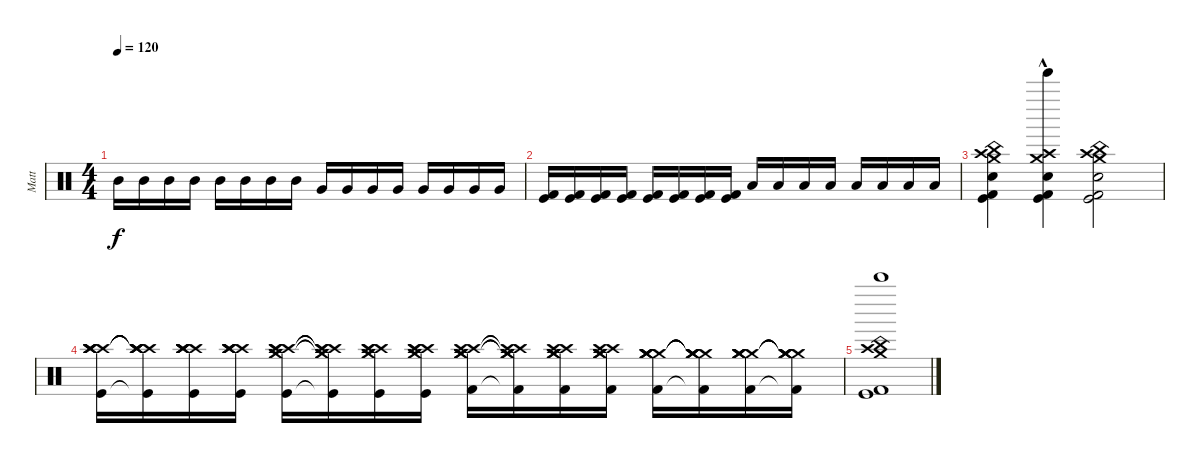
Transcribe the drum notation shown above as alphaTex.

\track ("Matt" "Matt") {instrument percussion}
\staff {score}
\articulation defaults
\ts (4 4)
\tempo 120
\clef neutral
\ks c "Mid Tom (hit)".16{dy f} "Mid Tom (hit)".16 "Mid Tom (hit)".16 "Mid Tom (hit)".16 "Mid Tom (hit)".16 "Mid Tom (hit)".16 "Mid Tom (hit)".16 "Mid Tom (hit)".16 "Very Low Tom (hit)".16 "Very Low Tom (hit)".16 "Very Low Tom (hit)".16 "Very Low Tom (hit)".16 "Very Low Tom (hit)".16 "Very Low Tom (hit)".16 "Very Low Tom (hit)".16 "Very Low Tom (hit)".16
|
("Kick (hit) 2" "Kick (hit)").16 ("Kick (hit) 2" "Kick (hit)").16 ("Kick (hit) 2" "Kick (hit)").16 ("Kick (hit) 2" "Kick (hit)").16 ("Kick (hit) 2" "Kick (hit)").16 ("Kick (hit) 2" "Kick (hit)").16 ("Kick (hit) 2" "Kick (hit)").16 ("Kick (hit) 2" "Kick (hit)").16 "Low Floor Tom (hit)".16 "Low Floor Tom (hit)".16 "Low Floor Tom (hit)".16 "Low Floor Tom (hit)".16 "Low Floor Tom (hit)".16 "Low Floor Tom (hit)".16 "Low Floor Tom (hit)".16 "Low Floor Tom (hit)".16 |
("China (hit)" "Crash medium (hit)" "Electric Snare (hit)" "Crash high (hit)" "Kick (hit)" "Kick (hit) 2").4 ("Tinkle Bell (hit)"{hac} "Crash medium (hit)" "Electric Snare (hit)" "Crash high (hit)" "Kick (hit)" "Kick (hit) 2").4 ("China (hit)" "Crash medium (hit)" "Electric Snare (hit)" "Crash high (hit)" "Kick (hit)" "Kick (hit) 2").2 |
("Crash high (hit)" "Crash high (hit)" "Crash high (hit)" "Crash high (hit)" "Crash high (hit)" "Kick (hit)").16 ("Crash high (hit)"{t} "Crash high (hit)"{t} "Crash high (hit)"{t} "Crash high (hit)"{t} "Crash high (hit)"{t} "Kick (hit)"{t}).16 ("Crash high (hit)" "Crash high (hit)" "Crash high (hit)" "Crash high (hit)" "Crash high (hit)" "Kick (hit)").16 ("Crash high (hit)" "Crash high (hit)" "Crash high (hit)" "Crash high (hit)" "Crash high (hit)" "Kick (hit)").16 ("Crash high (hit)" "Crash high (hit)" "Crash high (hit)" "Crash medium (hit)" "Crash medium (hit)" "Kick (hit)").16 ("Crash high (hit)"{t} "Crash high (hit)"{t} "Crash high (hit)"{t} "Crash medium (hit)"{t} "Crash medium (hit)"{t} "Kick (hit)"{t}).16 ("Crash high (hit)" "Crash high (hit)" "Crash high (hit)" "Crash medium (hit)" "Crash medium (hit)" "Kick (hit)").16 ("Crash high (hit)" "Crash high (hit)" "Crash high (hit)" "Crash medium (hit)" "Crash medium (hit)" "Kick (hit)").16 ("Crash high (hit)" "Crash high (hit)" "Crash medium (hit)" "Crash medium (hit)" "Crash medium (hit)" "Kick (hit) 2").16 ("Crash high (hit)"{t} "Crash high (hit)"{t} "Crash medium (hit)"{t} "Crash medium (hit)"{t} "Crash medium (hit)"{t} "Kick (hit) 2"{t}).16 ("Crash high (hit)" "Crash high (hit)" "Crash medium (hit)" "Crash medium (hit)" "Crash medium (hit)" "Kick (hit) 2").16 ("Crash high (hit)" "Crash high (hit)" "Crash medium (hit)" "Crash medium (hit)" "Crash medium (hit)" "Kick (hit) 2").16 ("Crash medium (hit)" "Crash medium (hit)" "Crash medium (hit)" "Crash medium (hit)" "Crash medium (hit)" "Kick (hit) 2").16 ("Crash medium (hit)"{t} "Crash medium (hit)"{t} "Crash medium (hit)"{t} "Crash medium (hit)"{t} "Crash medium (hit)"{t} "Kick (hit) 2"{t}).16 ("Crash medium (hit)" "Crash medium (hit)" "Crash medium (hit)" "Crash medium (hit)" "Crash medium (hit)" "Kick (hit) 2").16 ("Crash medium (hit)"{t} "Crash medium (hit)"{t} "Crash medium (hit)"{t} "Crash medium (hit)"{t} "Crash medium (hit)"{t} "Kick (hit) 2"{t}).16 |
("Crash high (hit)" "China (hit)" "Crash medium (hit)" "Bell Tree (hit)" "Kick (hit)" "Kick (hit) 2").1
